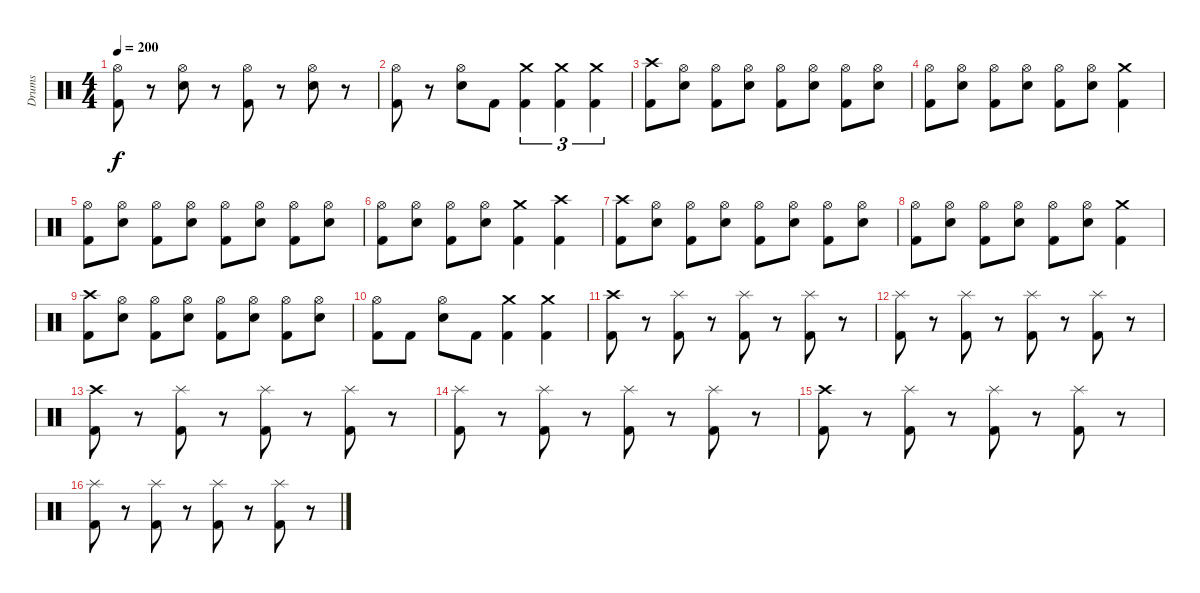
\track ("Drums" "Drums") {instrument percussion}
\staff {score}
\articulation defaults
\ts (4 4)
\tempo 200
\clef neutral
\ks c
("Hi-Hat (open)" "Kick (hit) 2").8{dy f} r.8 ("Hi-Hat (open)" "Electric Snare (hit)").8 r.8 ("Hi-Hat (open)" "Kick (hit) 2").8 r.8 ("Hi-Hat (open)" "Electric Snare (hit)").8 r.8 |
("Hi-Hat (open)" "Kick (hit) 2").8 r.8 ("Hi-Hat (open)" "Electric Snare (hit)").8 "Kick (hit) 2".8 ("Crash medium (hit)" "Kick (hit) 2").4{tu (3 2)} ("Crash medium (hit)" "Kick (hit) 2").4{tu (3 2)} ("Crash medium (hit)" "Kick (hit) 2").4{tu (3 2)} |
("Crash high (hit)" "Kick (hit) 2").8 ("Hi-Hat (open)" "Electric Snare (hit)").8 ("Hi-Hat (open)" "Kick (hit) 2").8 ("Hi-Hat (open)" "Electric Snare (hit)").8 ("Hi-Hat (open)" "Kick (hit) 2").8 ("Hi-Hat (open)" "Electric Snare (hit)").8 ("Hi-Hat (open)" "Kick (hit) 2").8 ("Hi-Hat (open)" "Electric Snare (hit)").8 |
("Hi-Hat (open)" "Kick (hit) 2").8 ("Hi-Hat (open)" "Electric Snare (hit)").8 ("Hi-Hat (open)" "Kick (hit) 2").8 ("Hi-Hat (open)" "Electric Snare (hit)").8 ("Hi-Hat (open)" "Kick (hit) 2").8 ("Hi-Hat (open)" "Electric Snare (hit)").8 ("Crash medium (hit)" "Kick (hit) 2").4 |
("Hi-Hat (open)" "Kick (hit) 2").8 ("Hi-Hat (open)" "Electric Snare (hit)").8 ("Hi-Hat (open)" "Kick (hit) 2").8 ("Hi-Hat (open)" "Electric Snare (hit)").8 ("Hi-Hat (open)" "Kick (hit) 2").8 ("Hi-Hat (open)" "Electric Snare (hit)").8 ("Hi-Hat (open)" "Kick (hit) 2").8 ("Hi-Hat (open)" "Electric Snare (hit)").8 |
("Hi-Hat (open)" "Kick (hit) 2").8 ("Hi-Hat (open)" "Electric Snare (hit)").8 ("Hi-Hat (open)" "Kick (hit) 2").8 ("Hi-Hat (open)" "Electric Snare (hit)").8 ("Crash medium (hit)" "Kick (hit) 2").4 ("Crash high (hit)" "Kick (hit) 2").4 |
("Crash high (hit)" "Kick (hit) 2").8 ("Hi-Hat (open)" "Electric Snare (hit)").8 ("Hi-Hat (open)" "Kick (hit) 2").8 ("Hi-Hat (open)" "Electric Snare (hit)").8 ("Hi-Hat (open)" "Kick (hit) 2").8 ("Hi-Hat (open)" "Electric Snare (hit)").8 ("Hi-Hat (open)" "Kick (hit) 2").8 ("Hi-Hat (open)" "Electric Snare (hit)").8 |
("Hi-Hat (open)" "Kick (hit) 2").8 ("Hi-Hat (open)" "Electric Snare (hit)").8 ("Hi-Hat (open)" "Kick (hit) 2").8 ("Hi-Hat (open)" "Electric Snare (hit)").8 ("Hi-Hat (open)" "Kick (hit) 2").8 ("Hi-Hat (open)" "Electric Snare (hit)").8 ("Crash medium (hit)" "Kick (hit) 2").4 |
("Crash high (hit)" "Kick (hit) 2").8 ("Hi-Hat (open)" "Electric Snare (hit)").8 ("Hi-Hat (open)" "Kick (hit) 2").8 ("Hi-Hat (open)" "Electric Snare (hit)").8 ("Hi-Hat (open)" "Kick (hit) 2").8 ("Hi-Hat (open)" "Electric Snare (hit)").8 ("Hi-Hat (open)" "Kick (hit) 2").8 ("Hi-Hat (open)" "Electric Snare (hit)").8 |
("Hi-Hat (open)" "Kick (hit) 2").8 "Kick (hit) 2".8 ("Hi-Hat (open)" "Electric Snare (hit)").8 "Kick (hit) 2".8 ("Crash medium (hit)" "Kick (hit) 2").4 ("Crash medium (hit)" "Kick (hit) 2").4 |
("Crash high (hit)" "Kick (hit) 2").8 r.8 ("Splash (hit)" "Kick (hit) 2").8 r.8 ("Splash (hit)" "Kick (hit) 2").8 r.8 ("Splash (hit)" "Kick (hit) 2").8 r.8 |
("Splash (hit)" "Kick (hit) 2").8 r.8 ("Splash (hit)" "Kick (hit) 2").8 r.8 ("Splash (hit)" "Kick (hit) 2").8 r.8 ("Splash (hit)" "Kick (hit) 2").8 r.8 |
("Crash high (hit)" "Kick (hit) 2").8 r.8 ("Splash (hit)" "Kick (hit) 2").8 r.8 ("Splash (hit)" "Kick (hit) 2").8 r.8 ("Splash (hit)" "Kick (hit) 2").8 r.8 |
("Splash (hit)" "Kick (hit) 2").8 r.8 ("Splash (hit)" "Kick (hit) 2").8 r.8 ("Splash (hit)" "Kick (hit) 2").8 r.8 ("Splash (hit)" "Kick (hit) 2").8 r.8 |
("Crash high (hit)" "Kick (hit) 2").8 r.8 ("Splash (hit)" "Kick (hit) 2").8 r.8 ("Splash (hit)" "Kick (hit) 2").8 r.8 ("Splash (hit)" "Kick (hit) 2").8 r.8 |
("Splash (hit)" "Kick (hit) 2").8 r.8 ("Splash (hit)" "Kick (hit) 2").8 r.8 ("Splash (hit)" "Kick (hit) 2").8 r.8 ("Splash (hit)" "Kick (hit) 2").8 r.8
